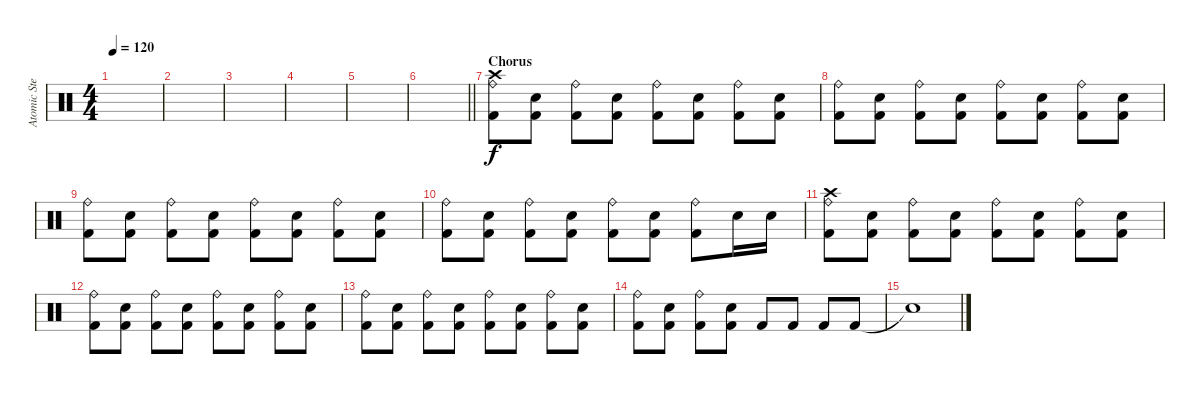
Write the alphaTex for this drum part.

\track ("Atomic Steif" "Atomic Ste") {instrument percussion}
\staff {score}
\articulation defaults
\ts (4 4)
\tempo 120
\clef neutral
\ks c
|
|
|
|
|
\barLineRight lightlight
|
\section ("" "Chorus")
("Crash high (hit)" "Ride (bell)" "Kick (hit) 2").8 ("Electric Snare (hit)" "Kick (hit) 2").8 ("Ride (bell)" "Kick (hit) 2").8 ("Electric Snare (hit)" "Kick (hit) 2").8 ("Ride (bell)" "Kick (hit) 2").8 ("Electric Snare (hit)" "Kick (hit) 2").8 ("Ride (bell)" "Kick (hit) 2").8 ("Electric Snare (hit)" "Kick (hit) 2").8 |
("Ride (bell)" "Kick (hit) 2").8 ("Electric Snare (hit)" "Kick (hit) 2").8 ("Ride (bell)" "Kick (hit) 2").8 ("Electric Snare (hit)" "Kick (hit) 2").8 ("Ride (bell)" "Kick (hit) 2").8 ("Electric Snare (hit)" "Kick (hit) 2").8 ("Ride (bell)" "Kick (hit) 2").8 ("Electric Snare (hit)" "Kick (hit) 2").8 |
("Ride (bell)" "Kick (hit) 2").8 ("Electric Snare (hit)" "Kick (hit) 2").8 ("Ride (bell)" "Kick (hit) 2").8 ("Electric Snare (hit)" "Kick (hit) 2").8 ("Ride (bell)" "Kick (hit) 2").8 ("Electric Snare (hit)" "Kick (hit) 2").8 ("Ride (bell)" "Kick (hit) 2").8 ("Electric Snare (hit)" "Kick (hit) 2").8 |
("Ride (bell)" "Kick (hit) 2").8 ("Electric Snare (hit)" "Kick (hit) 2").8 ("Ride (bell)" "Kick (hit) 2").8 ("Electric Snare (hit)" "Kick (hit) 2").8 ("Ride (bell)" "Kick (hit) 2").8 ("Electric Snare (hit)" "Kick (hit) 2").8 ("Ride (bell)" "Kick (hit) 2").8 "Electric Snare (hit)".16 "Electric Snare (hit)".16 |
("Crash high (hit)" "Ride (bell)" "Kick (hit) 2").8 ("Electric Snare (hit)" "Kick (hit) 2").8 ("Ride (bell)" "Kick (hit) 2").8 ("Electric Snare (hit)" "Kick (hit) 2").8 ("Ride (bell)" "Kick (hit) 2").8 ("Electric Snare (hit)" "Kick (hit) 2").8 ("Ride (bell)" "Kick (hit) 2").8 ("Electric Snare (hit)" "Kick (hit) 2").8 |
("Ride (bell)" "Kick (hit) 2").8 ("Electric Snare (hit)" "Kick (hit) 2").8 ("Ride (bell)" "Kick (hit) 2").8 ("Electric Snare (hit)" "Kick (hit) 2").8 ("Ride (bell)" "Kick (hit) 2").8 ("Electric Snare (hit)" "Kick (hit) 2").8 ("Ride (bell)" "Kick (hit) 2").8 ("Electric Snare (hit)" "Kick (hit) 2").8 |
("Ride (bell)" "Kick (hit) 2").8 ("Electric Snare (hit)" "Kick (hit) 2").8 ("Ride (bell)" "Kick (hit) 2").8 ("Electric Snare (hit)" "Kick (hit) 2").8 ("Ride (bell)" "Kick (hit) 2").8 ("Electric Snare (hit)" "Kick (hit) 2").8 ("Ride (bell)" "Kick (hit) 2").8 ("Electric Snare (hit)" "Kick (hit) 2").8 |
("Ride (bell)" "Kick (hit) 2").8 ("Electric Snare (hit)" "Kick (hit) 2").8 ("Ride (bell)" "Kick (hit) 2").8 ("Electric Snare (hit)" "Kick (hit) 2").8 "Kick (hit) 2".8 "Kick (hit) 2".8 "Kick (hit) 2".8 "Kick (hit) 2".8 |
"Snare (hit)"{t}.1
